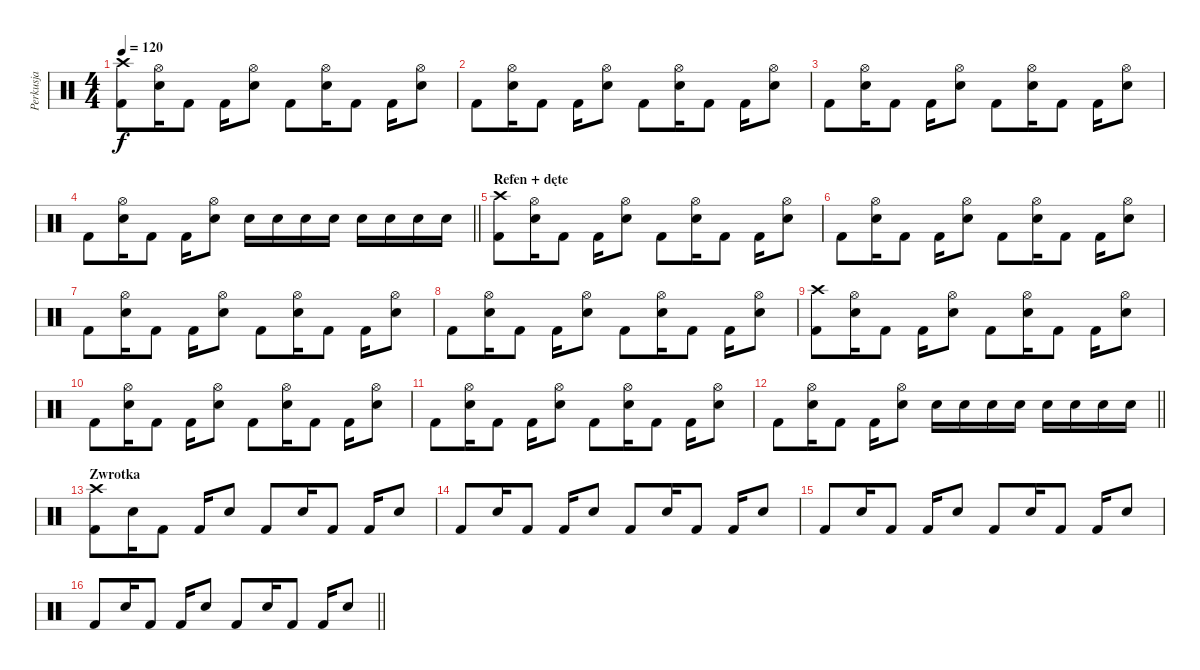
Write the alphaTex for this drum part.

\track ("Perkusja" "Perkusja") {instrument percussion}
\staff {score}
\articulation defaults
\ts (4 4)
\tempo 120
\clef neutral
\ks c
("Crash high (hit)" "Kick (hit) 2").8{dy f} ("Hi-Hat (open)" "Electric Snare (hit)").16 "Kick (hit) 2".8 "Kick (hit) 2".16 ("Hi-Hat (open)" "Electric Snare (hit)").8 "Kick (hit) 2".8 ("Hi-Hat (open)" "Electric Snare (hit)").16 "Kick (hit) 2".8 "Kick (hit) 2".16 ("Hi-Hat (open)" "Electric Snare (hit)").8 |
"Kick (hit) 2".8 ("Hi-Hat (open)" "Electric Snare (hit)").16 "Kick (hit) 2".8 "Kick (hit) 2".16 ("Hi-Hat (open)" "Electric Snare (hit)").8 "Kick (hit) 2".8 ("Hi-Hat (open)" "Electric Snare (hit)").16 "Kick (hit) 2".8 "Kick (hit) 2".16 ("Hi-Hat (open)" "Electric Snare (hit)").8 |
"Kick (hit) 2".8 ("Hi-Hat (open)" "Electric Snare (hit)").16 "Kick (hit) 2".8 "Kick (hit) 2".16 ("Hi-Hat (open)" "Electric Snare (hit)").8 "Kick (hit) 2".8 ("Hi-Hat (open)" "Electric Snare (hit)").16 "Kick (hit) 2".8 "Kick (hit) 2".16 ("Hi-Hat (open)" "Electric Snare (hit)").8 |
\barLineRight lightlight "Kick (hit) 2".8
("Hi-Hat (open)" "Electric Snare (hit)").16 "Kick (hit) 2".8 "Kick (hit) 2".16 ("Hi-Hat (open)" "Electric Snare (hit)").8 "Electric Snare (hit)".16 "Electric Snare (hit)".16 "Electric Snare (hit)".16 "Electric Snare (hit)".16 "Electric Snare (hit)".16 "Electric Snare (hit)".16 "Electric Snare (hit)".16 "Electric Snare (hit)".16 |
\section ("" "Refen + dęte")
("Crash high (hit)" "Kick (hit) 2").8 ("Hi-Hat (open)" "Electric Snare (hit)").16 "Kick (hit) 2".8 "Kick (hit) 2".16 ("Hi-Hat (open)" "Electric Snare (hit)").8 "Kick (hit) 2".8 ("Hi-Hat (open)" "Electric Snare (hit)").16 "Kick (hit) 2".8 "Kick (hit) 2".16 ("Hi-Hat (open)" "Electric Snare (hit)").8 |
"Kick (hit) 2".8 ("Hi-Hat (open)" "Electric Snare (hit)").16 "Kick (hit) 2".8 "Kick (hit) 2".16 ("Hi-Hat (open)" "Electric Snare (hit)").8 "Kick (hit) 2".8 ("Hi-Hat (open)" "Electric Snare (hit)").16 "Kick (hit) 2".8 "Kick (hit) 2".16 ("Hi-Hat (open)" "Electric Snare (hit)").8 |
"Kick (hit) 2".8 ("Hi-Hat (open)" "Electric Snare (hit)").16 "Kick (hit) 2".8 "Kick (hit) 2".16 ("Hi-Hat (open)" "Electric Snare (hit)").8 "Kick (hit) 2".8 ("Hi-Hat (open)" "Electric Snare (hit)").16 "Kick (hit) 2".8 "Kick (hit) 2".16 ("Hi-Hat (open)" "Electric Snare (hit)").8 |
"Kick (hit) 2".8 ("Hi-Hat (open)" "Electric Snare (hit)").16 "Kick (hit) 2".8 "Kick (hit) 2".16 ("Hi-Hat (open)" "Electric Snare (hit)").8 "Kick (hit) 2".8 ("Hi-Hat (open)" "Electric Snare (hit)").16 "Kick (hit) 2".8 "Kick (hit) 2".16 ("Hi-Hat (open)" "Electric Snare (hit)").8 |
("Crash high (hit)" "Kick (hit) 2").8 ("Hi-Hat (open)" "Electric Snare (hit)").16 "Kick (hit) 2".8 "Kick (hit) 2".16 ("Hi-Hat (open)" "Electric Snare (hit)").8 "Kick (hit) 2".8 ("Hi-Hat (open)" "Electric Snare (hit)").16 "Kick (hit) 2".8 "Kick (hit) 2".16 ("Hi-Hat (open)" "Electric Snare (hit)").8 |
"Kick (hit) 2".8 ("Hi-Hat (open)" "Electric Snare (hit)").16 "Kick (hit) 2".8 "Kick (hit) 2".16 ("Hi-Hat (open)" "Electric Snare (hit)").8 "Kick (hit) 2".8 ("Hi-Hat (open)" "Electric Snare (hit)").16 "Kick (hit) 2".8 "Kick (hit) 2".16 ("Hi-Hat (open)" "Electric Snare (hit)").8 |
"Kick (hit) 2".8 ("Hi-Hat (open)" "Electric Snare (hit)").16 "Kick (hit) 2".8 "Kick (hit) 2".16 ("Hi-Hat (open)" "Electric Snare (hit)").8 "Kick (hit) 2".8 ("Hi-Hat (open)" "Electric Snare (hit)").16 "Kick (hit) 2".8 "Kick (hit) 2".16 ("Hi-Hat (open)" "Electric Snare (hit)").8 |
\barLineRight lightlight "Kick (hit) 2".8
("Hi-Hat (open)" "Electric Snare (hit)").16 "Kick (hit) 2".8 "Kick (hit) 2".16 ("Hi-Hat (open)" "Electric Snare (hit)").8 "Electric Snare (hit)".16 "Electric Snare (hit)".16 "Electric Snare (hit)".16 "Electric Snare (hit)".16 "Electric Snare (hit)".16 "Electric Snare (hit)".16 "Electric Snare (hit)".16 "Electric Snare (hit)".16 |
\section ("" "Zwrotka")
("Crash high (hit)" "Kick (hit) 2").8 "Electric Snare (hit)".16 "Kick (hit) 2".8 "Kick (hit) 2".16 "Electric Snare (hit)".8 "Kick (hit) 2".8 "Electric Snare (hit)".16 "Kick (hit) 2".8 "Kick (hit) 2".16 "Electric Snare (hit)".8 |
"Kick (hit) 2".8 "Electric Snare (hit)".16 "Kick (hit) 2".8 "Kick (hit) 2".16 "Electric Snare (hit)".8 "Kick (hit) 2".8 "Electric Snare (hit)".16 "Kick (hit) 2".8 "Kick (hit) 2".16 "Electric Snare (hit)".8 |
"Kick (hit) 2".8 "Electric Snare (hit)".16 "Kick (hit) 2".8 "Kick (hit) 2".16 "Electric Snare (hit)".8 "Kick (hit) 2".8 "Electric Snare (hit)".16 "Kick (hit) 2".8 "Kick (hit) 2".16 "Electric Snare (hit)".8 |
\barLineRight lightlight "Kick (hit) 2".8 "Electric Snare (hit)".16 "Kick (hit) 2".8 "Kick (hit) 2".16 "Electric Snare (hit)".8 "Kick (hit) 2".8 "Electric Snare (hit)".16 "Kick (hit) 2".8 "Kick (hit) 2".16 "Electric Snare (hit)".8
